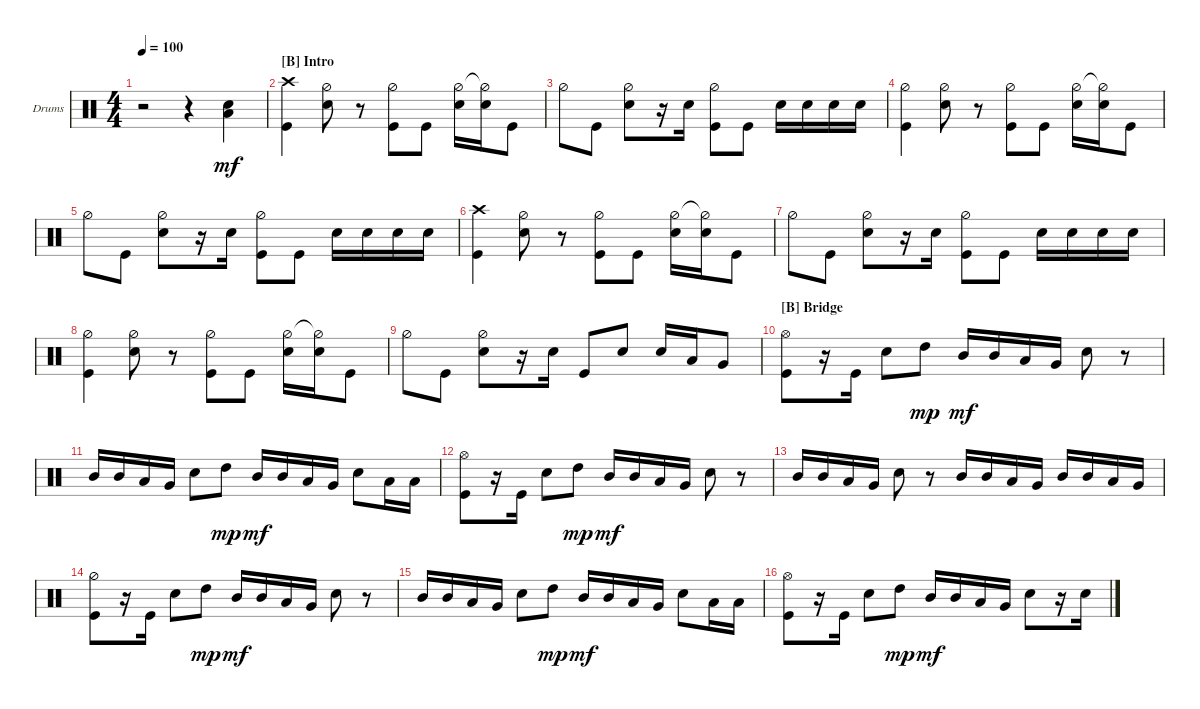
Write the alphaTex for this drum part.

\defaultSystemsLayout 4
\bracketExtendMode groupsimilarinstruments
\firstSystemTrackNameOrientation horizontal
\otherSystemsTrackNameOrientation horizontal
\track ("Drumkit" "Drums") {instrument percussion}
\staff {score}
\articulation defaults
\ts (4 4)
\tempo 100
\clef neutral
\ks c
r.2{dy mf} r.4 ("Low Tom (hit)" "Snare (hit) 2").4 |
\section ("B" "Intro")
("Crash high (hit)" "Kick (hit)").4 ("Snare (hit) 2" "Hi-Hat (half)").8 r.8 ("Kick (hit)" "Hi-Hat (half)").8 "Kick (hit)".8 ("Snare (hit) 2" "Hi-Hat (half)").16 ("Snare (hit) 2" "Hi-Hat (half)"{t}).16 "Kick (hit)".8 |
"Hi-Hat (half)".8 "Kick (hit)".8 ("Hi-Hat (half)" "Snare (hit) 2").8 r.16 "Snare (hit) 2".16 ("Kick (hit)" "Hi-Hat (half)").8 "Kick (hit)".8 "Snare (hit) 2".16 "Snare (hit) 2".16 "Snare (hit) 2".16 "Snare (hit) 2".16 |
("Kick (hit)" "Hi-Hat (half)").4 ("Snare (hit) 2" "Hi-Hat (half)").8 r.8 ("Kick (hit)" "Hi-Hat (half)").8 "Kick (hit)".8 ("Snare (hit) 2" "Hi-Hat (half)").16 ("Snare (hit) 2" "Hi-Hat (half)"{t}).16 "Kick (hit)".8 |
"Hi-Hat (half)".8 "Kick (hit)".8 ("Hi-Hat (half)" "Snare (hit) 2").8 r.16 "Snare (hit) 2".16 ("Kick (hit)" "Hi-Hat (half)").8 "Kick (hit)".8 "Snare (hit) 2".16 "Snare (hit) 2".16 "Snare (hit) 2".16 "Snare (hit) 2".16 |
("Crash high (hit)" "Kick (hit)").4 ("Snare (hit) 2" "Hi-Hat (half)").8 r.8 ("Kick (hit)" "Hi-Hat (half)").8 "Kick (hit)".8 ("Snare (hit) 2" "Hi-Hat (half)").16 ("Snare (hit) 2" "Hi-Hat (half)"{t}).16 "Kick (hit)".8 |
"Hi-Hat (half)".8 "Kick (hit)".8 ("Hi-Hat (half)" "Snare (hit) 2").8 r.16 "Snare (hit) 2".16 ("Kick (hit)" "Hi-Hat (half)").8 "Kick (hit)".8 "Snare (hit) 2".16 "Snare (hit) 2".16 "Snare (hit) 2".16 "Snare (hit) 2".16 |
("Kick (hit)" "Hi-Hat (half)").4 ("Snare (hit) 2" "Hi-Hat (half)").8 r.8 ("Kick (hit)" "Hi-Hat (half)").8 "Kick (hit)".8 ("Snare (hit) 2" "Hi-Hat (half)").16 ("Snare (hit) 2" "Hi-Hat (half)"{t}).16 "Kick (hit)".8 |
"Hi-Hat (half)".8 "Kick (hit)".8 ("Hi-Hat (half)" "Snare (hit) 2").8 r.16 "Snare (hit) 2".16 "Kick (hit)".8 "Snare (hit) 2".8 "Snare (hit) 2".16 "Low Tom (hit)".16 "Very Low Tom (hit)".8 |
\section ("B" "Bridge")
("Kick (hit)" "Hi-Hat (open)").8 r.16 "Kick (hit)".16 "Snare (hit) 2".8 "High Tom (hit)".8{dy mp} "Mid Tom (hit)".16{dy mf} "Mid Tom (hit)".16 "Low Tom (hit)".16 "Very Low Tom (hit)".16 "Snare (hit) 2".8 r.8 |
"Mid Tom (hit)".16 "Mid Tom (hit)".16 "Low Tom (hit)".16 "Very Low Tom (hit)".16 "Snare (hit) 2".8 "High Tom (hit)".8{dy mp} "Mid Tom (hit)".16{dy mf} "Mid Tom (hit)".16 "Low Tom (hit)".16 "Very Low Tom (hit)".16 "Snare (hit) 2".8 "Low Tom (hit)".16 "Low Tom (hit)".16 |
("Kick (hit)" "Hi-Hat (open)").8 r.16 "Kick (hit)".16 "Snare (hit) 2".8 "High Tom (hit)".8{dy mp} "Mid Tom (hit)".16{dy mf} "Mid Tom (hit)".16 "Low Tom (hit)".16 "Very Low Tom (hit)".16 "Snare (hit) 2".8 r.8 |
"Mid Tom (hit)".16 "Mid Tom (hit)".16 "Low Tom (hit)".16 "Very Low Tom (hit)".16 "Snare (hit) 2".8 r.8 "Mid Tom (hit)".16 "Mid Tom (hit)".16 "Low Tom (hit)".16 "Very Low Tom (hit)".16 "Mid Tom (hit)".16 "Mid Tom (hit)".16 "Low Tom (hit)".16 "Very Low Tom (hit)".16 |
("Kick (hit)" "Hi-Hat (half)").8 r.16 "Kick (hit)".16 "Snare (hit) 2".8 "High Tom (hit)".8{dy mp} "Mid Tom (hit)".16{dy mf} "Mid Tom (hit)".16 "Low Tom (hit)".16 "Very Low Tom (hit)".16 "Snare (hit) 2".8 r.8 |
"Mid Tom (hit)".16 "Mid Tom (hit)".16 "Low Tom (hit)".16 "Very Low Tom (hit)".16 "Snare (hit) 2".8 "High Tom (hit)".8{dy mp} "Mid Tom (hit)".16{dy mf} "Mid Tom (hit)".16 "Low Tom (hit)".16 "Very Low Tom (hit)".16 "Snare (hit) 2".8 "Low Tom (hit)".16 "Low Tom (hit)".16 |
("Kick (hit)" "Hi-Hat (open)").8 r.16 "Kick (hit)".16 "Snare (hit) 2".8 "High Tom (hit)".8{dy mp} "Mid Tom (hit)".16{dy mf} "Mid Tom (hit)".16 "Low Tom (hit)".16 "Very Low Tom (hit)".16 "Snare (hit) 2".8 r.16 "Snare (hit) 2".16
